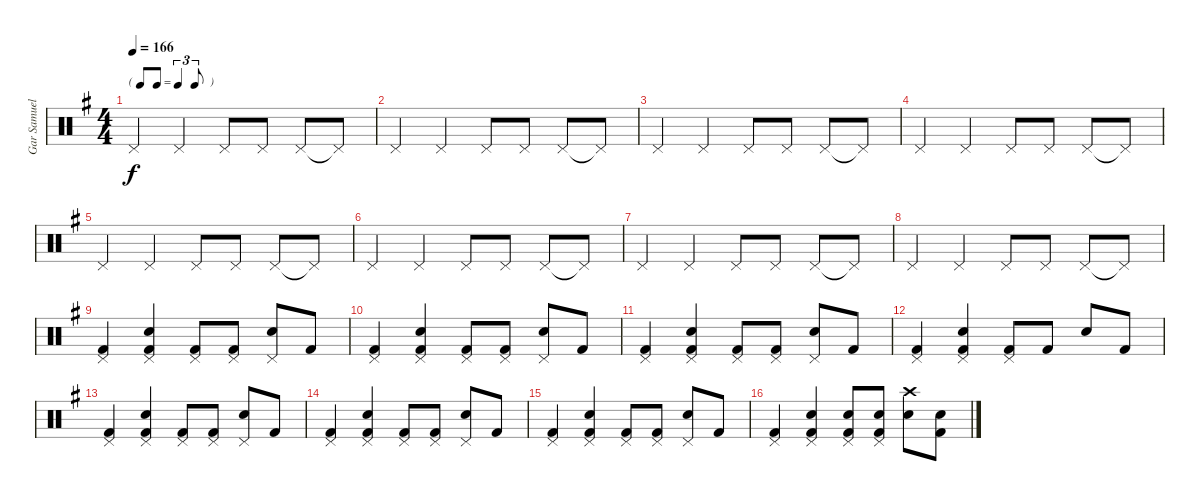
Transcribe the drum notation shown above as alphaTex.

\track ("Gar Samuelson" "Gar Samuel") {instrument percussion}
\staff {score}
\articulation defaults
\ts (4 4)
\tf triplet8th
\tempo 166
\clef neutral
\ks g "Pedal Hi-Hat (hit)".4{dy f} "Pedal Hi-Hat (hit)".4 "Pedal Hi-Hat (hit)".8 "Pedal Hi-Hat (hit)".8 "Pedal Hi-Hat (hit)".8 "Pedal Hi-Hat (hit)"{t}.8
|
"Pedal Hi-Hat (hit)".4 "Pedal Hi-Hat (hit)".4 "Pedal Hi-Hat (hit)".8 "Pedal Hi-Hat (hit)".8 "Pedal Hi-Hat (hit)".8 "Pedal Hi-Hat (hit)"{t}.8 |
"Pedal Hi-Hat (hit)".4 "Pedal Hi-Hat (hit)".4 "Pedal Hi-Hat (hit)".8 "Pedal Hi-Hat (hit)".8 "Pedal Hi-Hat (hit)".8 "Pedal Hi-Hat (hit)"{t}.8 |
"Pedal Hi-Hat (hit)".4 "Pedal Hi-Hat (hit)".4 "Pedal Hi-Hat (hit)".8 "Pedal Hi-Hat (hit)".8 "Pedal Hi-Hat (hit)".8 "Pedal Hi-Hat (hit)"{t}.8 |
"Pedal Hi-Hat (hit)".4 "Pedal Hi-Hat (hit)".4 "Pedal Hi-Hat (hit)".8 "Pedal Hi-Hat (hit)".8 "Pedal Hi-Hat (hit)".8 "Pedal Hi-Hat (hit)"{t}.8 |
"Pedal Hi-Hat (hit)".4 "Pedal Hi-Hat (hit)".4 "Pedal Hi-Hat (hit)".8 "Pedal Hi-Hat (hit)".8 "Pedal Hi-Hat (hit)".8 "Pedal Hi-Hat (hit)"{t}.8 |
"Pedal Hi-Hat (hit)".4 "Pedal Hi-Hat (hit)".4 "Pedal Hi-Hat (hit)".8 "Pedal Hi-Hat (hit)".8 "Pedal Hi-Hat (hit)".8 "Pedal Hi-Hat (hit)"{t}.8 |
"Pedal Hi-Hat (hit)".4 "Pedal Hi-Hat (hit)".4 "Pedal Hi-Hat (hit)".8 "Pedal Hi-Hat (hit)".8 "Pedal Hi-Hat (hit)".8 "Pedal Hi-Hat (hit)"{t}.8 |
("Pedal Hi-Hat (hit)" "Kick (hit) 2").4 ("Pedal Hi-Hat (hit)" "Electric Snare (hit)" "Kick (hit) 2").4 ("Pedal Hi-Hat (hit)" "Kick (hit) 2").8 ("Pedal Hi-Hat (hit)" "Kick (hit) 2").8 ("Pedal Hi-Hat (hit)" "Electric Snare (hit)").8 "Kick (hit) 2".8 |
("Pedal Hi-Hat (hit)" "Kick (hit) 2").4 ("Pedal Hi-Hat (hit)" "Electric Snare (hit)" "Kick (hit) 2").4 ("Pedal Hi-Hat (hit)" "Kick (hit) 2").8 ("Pedal Hi-Hat (hit)" "Kick (hit) 2").8 ("Pedal Hi-Hat (hit)" "Electric Snare (hit)").8 "Kick (hit) 2".8 |
("Pedal Hi-Hat (hit)" "Kick (hit) 2").4 ("Pedal Hi-Hat (hit)" "Electric Snare (hit)" "Kick (hit) 2").4 ("Pedal Hi-Hat (hit)" "Kick (hit) 2").8 ("Pedal Hi-Hat (hit)" "Kick (hit) 2").8 ("Pedal Hi-Hat (hit)" "Electric Snare (hit)").8 "Kick (hit) 2".8 |
("Pedal Hi-Hat (hit)" "Kick (hit) 2").4 ("Pedal Hi-Hat (hit)" "Electric Snare (hit)" "Kick (hit) 2").4 ("Pedal Hi-Hat (hit)" "Kick (hit) 2").8 "Kick (hit) 2".8 "Electric Snare (hit)".8 "Kick (hit) 2".8 |
("Pedal Hi-Hat (hit)" "Kick (hit) 2").4 ("Pedal Hi-Hat (hit)" "Electric Snare (hit)" "Kick (hit) 2").4 ("Pedal Hi-Hat (hit)" "Kick (hit) 2").8 ("Pedal Hi-Hat (hit)" "Kick (hit) 2").8 ("Pedal Hi-Hat (hit)" "Electric Snare (hit)").8 "Kick (hit) 2".8 |
("Pedal Hi-Hat (hit)" "Kick (hit) 2").4 ("Pedal Hi-Hat (hit)" "Electric Snare (hit)" "Kick (hit) 2").4 ("Pedal Hi-Hat (hit)" "Kick (hit) 2").8 ("Pedal Hi-Hat (hit)" "Kick (hit) 2").8 ("Pedal Hi-Hat (hit)" "Electric Snare (hit)").8 "Kick (hit) 2".8 |
("Pedal Hi-Hat (hit)" "Kick (hit) 2").4 ("Pedal Hi-Hat (hit)" "Electric Snare (hit)" "Kick (hit) 2").4 ("Pedal Hi-Hat (hit)" "Kick (hit) 2").8 ("Pedal Hi-Hat (hit)" "Kick (hit) 2").8 ("Pedal Hi-Hat (hit)" "Electric Snare (hit)").8 "Kick (hit) 2".8 |
("Pedal Hi-Hat (hit)" "Kick (hit) 2").4 ("Pedal Hi-Hat (hit)" "Electric Snare (hit)" "Kick (hit) 2").4 ("Pedal Hi-Hat (hit)" "Electric Snare (hit)" "Kick (hit) 2").8 ("Pedal Hi-Hat (hit)" "Electric Snare (hit)" "Kick (hit) 2").8 ("Crash high (hit)" "Electric Snare (hit)").8 ("Electric Snare (hit)" "Kick (hit) 2").8
